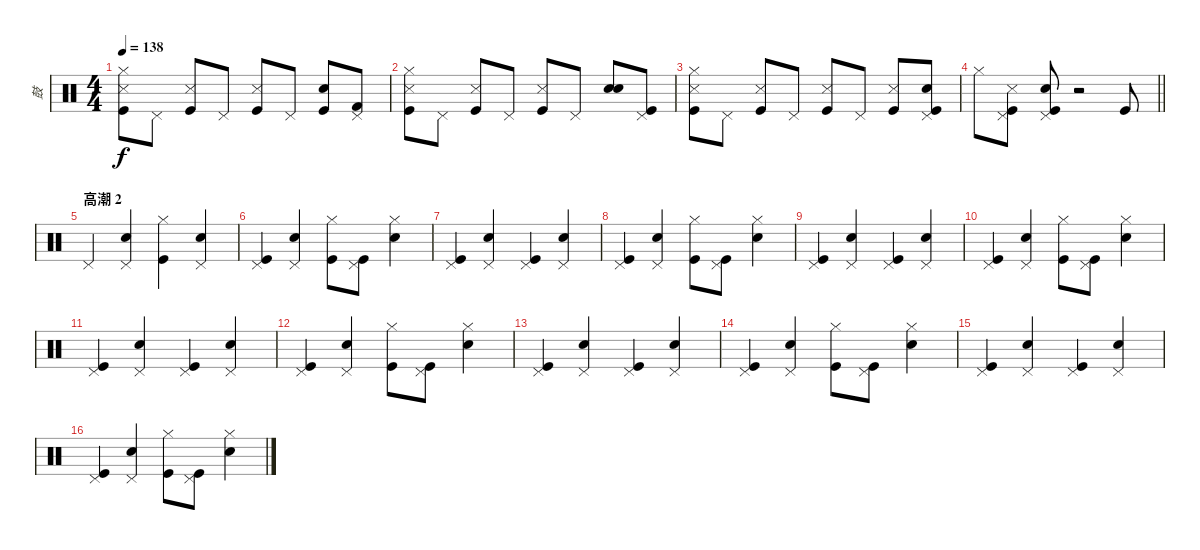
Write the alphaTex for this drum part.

\track ("鼓" "鼓") {instrument percussion}
\staff {score}
\articulation defaults
\ts (4 4)
\tempo 138
\clef neutral
\ks c
("Snare (side stick) 3" "Kick (hit)" "Hi-Hat (closed)").8{dy f} "Pedal Hi-Hat (hit)".8 ("Snare (side stick) 3" "Kick (hit)").8 "Pedal Hi-Hat (hit)".8 ("Snare (side stick) 3" "Kick (hit)").8 "Pedal Hi-Hat (hit)".8 ("Hand Clap (hit)" "Kick (hit)").8 ("Kick (hit) 2" "Pedal Hi-Hat (hit)").8 |
("Snare (side stick) 3" "Kick (hit)" "Hi-Hat (closed)").8 "Pedal Hi-Hat (hit)".8 ("Snare (side stick) 3" "Kick (hit)").8 "Pedal Hi-Hat (hit)".8 ("Snare (side stick) 3" "Kick (hit)").8 "Pedal Hi-Hat (hit)".8 ("Hand Clap (hit)" "Snare (hit) 2").8 ("Kick (hit)" "Pedal Hi-Hat (hit)").8 |
("Snare (side stick) 3" "Kick (hit)" "Hi-Hat (closed)").8 "Pedal Hi-Hat (hit)".8 ("Snare (side stick) 3" "Kick (hit)").8 "Pedal Hi-Hat (hit)".8 ("Snare (side stick) 3" "Kick (hit)").8 "Pedal Hi-Hat (hit)".8 ("Snare (side stick) 3" "Kick (hit)").8 ("Hand Clap (hit)" "Kick (hit)" "Pedal Hi-Hat (hit)").8 |
\barLineRight lightlight "Hi-Hat (closed)".8
("Snare (side stick) 3" "Kick (hit)" "Pedal Hi-Hat (hit)").8 ("Hand Clap (hit)" "Kick (hit)" "Pedal Hi-Hat (hit)").8 r.2 "Kick (hit)".8 |
\section ("" "高潮 2")
"Pedal Hi-Hat (hit)".4 ("Snare (hit) 2" "Pedal Hi-Hat (hit)").4 ("Kick (hit)" "Hi-Hat (closed)").4 ("Snare (hit) 2" "Pedal Hi-Hat (hit)").4 |
("Kick (hit)" "Pedal Hi-Hat (hit)").4 ("Snare (hit) 2" "Pedal Hi-Hat (hit)").4 ("Kick (hit)" "Hi-Hat (closed)").8 ("Kick (hit)" "Pedal Hi-Hat (hit)").8 ("Snare (hit) 2" "Hi-Hat (closed)").4 |
("Kick (hit)" "Pedal Hi-Hat (hit)").4 ("Snare (hit) 2" "Pedal Hi-Hat (hit)").4 ("Kick (hit)" "Pedal Hi-Hat (hit)").4 ("Snare (hit) 2" "Pedal Hi-Hat (hit)").4 |
("Kick (hit)" "Pedal Hi-Hat (hit)").4 ("Snare (hit) 2" "Pedal Hi-Hat (hit)").4 ("Kick (hit)" "Hi-Hat (closed)").8 ("Kick (hit)" "Pedal Hi-Hat (hit)").8 ("Snare (hit) 2" "Hi-Hat (closed)").4 |
("Kick (hit)" "Pedal Hi-Hat (hit)").4 ("Snare (hit) 2" "Pedal Hi-Hat (hit)").4 ("Kick (hit)" "Pedal Hi-Hat (hit)").4 ("Snare (hit) 2" "Pedal Hi-Hat (hit)").4 |
("Kick (hit)" "Pedal Hi-Hat (hit)").4 ("Snare (hit) 2" "Pedal Hi-Hat (hit)").4 ("Kick (hit)" "Hi-Hat (closed)").8 ("Kick (hit)" "Pedal Hi-Hat (hit)").8 ("Snare (hit) 2" "Hi-Hat (closed)").4 |
("Kick (hit)" "Pedal Hi-Hat (hit)").4 ("Snare (hit) 2" "Pedal Hi-Hat (hit)").4 ("Kick (hit)" "Pedal Hi-Hat (hit)").4 ("Snare (hit) 2" "Pedal Hi-Hat (hit)").4 |
("Kick (hit)" "Pedal Hi-Hat (hit)").4 ("Snare (hit) 2" "Pedal Hi-Hat (hit)").4 ("Kick (hit)" "Hi-Hat (closed)").8 ("Kick (hit)" "Pedal Hi-Hat (hit)").8 ("Snare (hit) 2" "Hi-Hat (closed)").4 |
("Kick (hit)" "Pedal Hi-Hat (hit)").4 ("Snare (hit) 2" "Pedal Hi-Hat (hit)").4 ("Kick (hit)" "Pedal Hi-Hat (hit)").4 ("Snare (hit) 2" "Pedal Hi-Hat (hit)").4 |
("Kick (hit)" "Pedal Hi-Hat (hit)").4 ("Snare (hit) 2" "Pedal Hi-Hat (hit)").4 ("Kick (hit)" "Hi-Hat (closed)").8 ("Kick (hit)" "Pedal Hi-Hat (hit)").8 ("Snare (hit) 2" "Hi-Hat (closed)").4 |
("Kick (hit)" "Pedal Hi-Hat (hit)").4 ("Snare (hit) 2" "Pedal Hi-Hat (hit)").4 ("Kick (hit)" "Pedal Hi-Hat (hit)").4 ("Snare (hit) 2" "Pedal Hi-Hat (hit)").4 |
("Kick (hit)" "Pedal Hi-Hat (hit)").4 ("Snare (hit) 2" "Pedal Hi-Hat (hit)").4 ("Kick (hit)" "Hi-Hat (closed)").8 ("Kick (hit)" "Pedal Hi-Hat (hit)").8 ("Snare (hit) 2" "Hi-Hat (closed)").4
